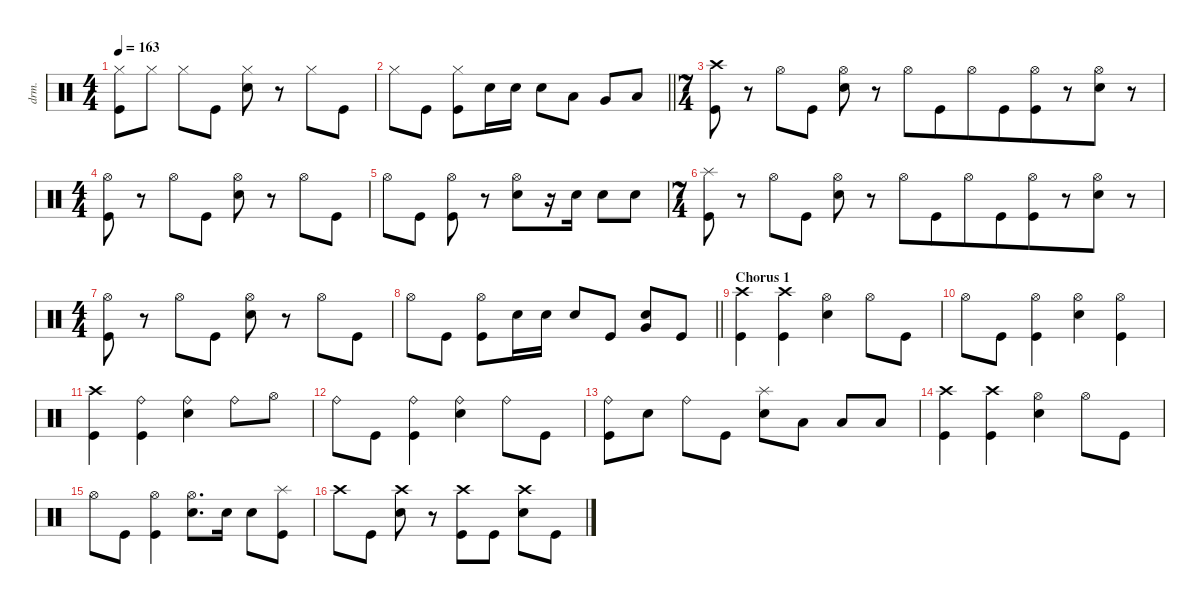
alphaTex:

\defaultSystemsLayout 4
\hideDynamics
\bracketExtendMode nobrackets
\otherSystemsTrackNameOrientation horizontal
\track ("Drums" "drm.") {instrument percussion}
\staff {score}
\articulation defaults
\ts (4 4)
\beaming (8 2 2 2 2)
\tempo 163
\clef neutral
\ks c
("Hi-Hat (closed)" "Kick (hit)").8{dy f} "Hi-Hat (closed)".8 "Hi-Hat (closed)".8 "Kick (hit)".8 ("Hi-Hat (closed)" "Snare (hit) 2").8 r.8 "Hi-Hat (closed)".8 "Kick (hit)".8 |
\barLineRight lightlight "Hi-Hat (closed)".8 "Kick (hit)".8
("Hi-Hat (closed)" "Kick (hit)").8 "Snare (hit) 2".16{dy mp} "Snare (hit) 2".16{dy mf} "Snare (hit) 2".8{dy ff} "Low Tom (hit)".8{dy f} "Very Low Tom (hit)".8 "Low Floor Tom (hit)".8 |
\ts (7 4)
\beaming (8 2 2 2 8)
\section ("" "")
("Crash high (hit)" "Kick (hit)").8 r.8 "Hi-Hat (open)".8 "Kick (hit)".8 ("Hi-Hat (open)" "Snare (hit) 2").8 r.8 "Hi-Hat (open)".8 "Kick (hit)".8 "Hi-Hat (open)".8 "Kick (hit)".8 ("Hi-Hat (open)" "Kick (hit)").8 r.8 ("Hi-Hat (open)" "Snare (hit) 2").8 r.8 |
\ts (4 4)
\beaming (8 2 2 2 2)
("Hi-Hat (open)" "Kick (hit)").8 r.8 "Hi-Hat (open)".8 "Kick (hit)".8 ("Hi-Hat (open)" "Snare (hit) 2").8 r.8 "Hi-Hat (open)".8 "Kick (hit)".8 |
"Hi-Hat (open)".8 "Kick (hit)".8 ("Hi-Hat (open)" "Kick (hit)").8 r.8 ("Hi-Hat (open)" "Snare (hit) 2").8 r.16 "Snare (hit) 2".16{dy mp} "Snare (hit) 2".8{dy mf} "Snare (hit) 2".8{dy f} |
\ts (7 4)
\beaming (8 2 2 2 8)
("Splash (hit)" "Kick (hit)").8 r.8 "Hi-Hat (open)".8 "Kick (hit)".8 ("Hi-Hat (open)" "Snare (hit) 2").8 r.8 "Hi-Hat (open)".8 "Kick (hit)".8 "Hi-Hat (open)".8 "Kick (hit)".8 ("Hi-Hat (open)" "Kick (hit)").8 r.8 ("Hi-Hat (open)" "Snare (hit) 2").8 r.8 |
\ts (4 4)
\beaming (8 2 2 2 2)
("Hi-Hat (open)" "Kick (hit)").8 r.8 "Hi-Hat (open)".8 "Kick (hit)".8 ("Hi-Hat (open)" "Snare (hit) 2").8 r.8 "Hi-Hat (open)".8 "Kick (hit)".8 |
\barLineRight lightlight "Hi-Hat (open)".8 "Kick (hit)".8
("Hi-Hat (open)" "Kick (hit)").8 "Snare (hit) 2".16{dy p} "Snare (hit) 2".16{dy mp} "Snare (hit) 2".8{dy ff} "Kick (hit)".8 ("Very Low Tom (hit)" "Snare (hit) 2").8 "Kick (hit)".8 |
\section ("" "Chorus 1")
("Crash high (hit)" "Kick (hit)").4{dy f} ("Crash high (hit)" "Kick (hit)").4 ("Hi-Hat (open)" "Snare (hit) 2").4 "Hi-Hat (open)".8 "Kick (hit)".8 |
"Hi-Hat (open)".8 "Kick (hit)".8 ("Hi-Hat (open)" "Kick (hit)").4 ("Hi-Hat (open)" "Snare (hit) 2").4 ("Hi-Hat (open)" "Kick (hit)").4 |
("Crash high (hit)" "Kick (hit)").4 ("Ride (bell)" "Kick (hit)").4 ("Ride (bell)" "Snare (hit) 2").4 "Ride (bell)".8 "Hi-Hat (open)".8 |
"Ride (bell)".8 "Kick (hit)".8 ("Ride (bell)" "Kick (hit)").4 ("Ride (bell)" "Snare (hit) 2").4 "Ride (bell)".8 "Kick (hit)".8 |
("Ride (bell)" "Kick (hit)").8 "Snare (hit) 2".8 "Ride (bell)".8 "Kick (hit)".8 ("Splash (hit)" "Snare (hit) 2").8 "Low Floor Tom (hit)".8 "Low Floor Tom (hit)".8 "Low Floor Tom (hit)".8 |
("Crash high (hit)" "Kick (hit)").4 ("Crash high (hit)" "Kick (hit)").4 ("Hi-Hat (open)" "Snare (hit) 2").4 "Hi-Hat (open)".8 "Kick (hit)".8 |
"Hi-Hat (open)".8 "Kick (hit)".8 ("Hi-Hat (open)" "Kick (hit)").4 ("Hi-Hat (open)" "Snare (hit) 2").8{d} "Snare (hit) 2".16 "Snare (hit) 2".8 ("Splash (hit)" "Kick (hit)").8 |
"Crash high (hit)".8 "Kick (hit)".8 ("Crash high (hit)" "Snare (hit) 2").8 r.8 ("Crash high (hit)" "Kick (hit)").8 "Kick (hit)".8 ("Crash high (hit)" "Snare (hit) 2").8 "Kick (hit)".8
